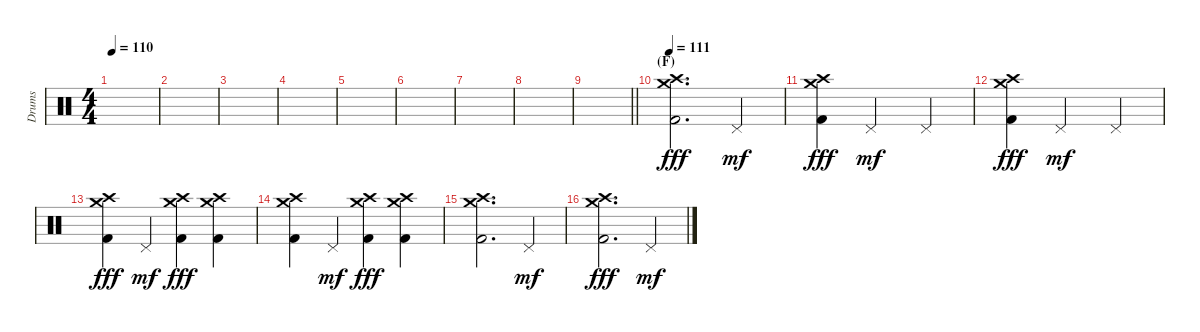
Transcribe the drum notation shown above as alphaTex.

\track ("Drums" "Drums") {instrument percussion}
\staff {score}
\articulation defaults
\ts (4 4)
\tempo 110
\clef neutral
\ks c
|
|
|
|
|
|
|
|
\barLineRight lightlight
|
\section ("" "(F)")
\tempo 111
("Crash medium (hit)" "Crash high (hit)" "Kick (hit) 2").2{d dy fff volume 13} "Pedal Hi-Hat (hit)".4{dy mf} |
("Crash medium (hit)" "Crash high (hit)" "Kick (hit) 2").4{dy fff} "Pedal Hi-Hat (hit)".2{dy mf} "Pedal Hi-Hat (hit)".4 |
("Crash medium (hit)" "Crash high (hit)" "Kick (hit) 2").4{dy fff} "Pedal Hi-Hat (hit)".2{dy mf} "Pedal Hi-Hat (hit)".4 |
("Crash medium (hit)" "Crash high (hit)" "Kick (hit) 2").4{dy fff} "Pedal Hi-Hat (hit)".4{dy mf} ("Crash medium (hit)" "Crash high (hit)" "Kick (hit) 2").4{dy fff} ("Crash medium (hit)" "Crash high (hit)" "Kick (hit) 2").4 |
("Crash medium (hit)" "Crash high (hit)" "Kick (hit) 2").4 "Pedal Hi-Hat (hit)".4{dy mf} ("Crash medium (hit)" "Crash high (hit)" "Kick (hit) 2").4{dy fff} ("Crash medium (hit)" "Crash high (hit)" "Kick (hit) 2").4 |
("Crash medium (hit)" "Crash high (hit)" "Kick (hit) 2").2{d} "Pedal Hi-Hat (hit)".4{dy mf} |
("Crash medium (hit)" "Crash high (hit)" "Kick (hit) 2").2{d dy fff} "Pedal Hi-Hat (hit)".4{dy mf}
